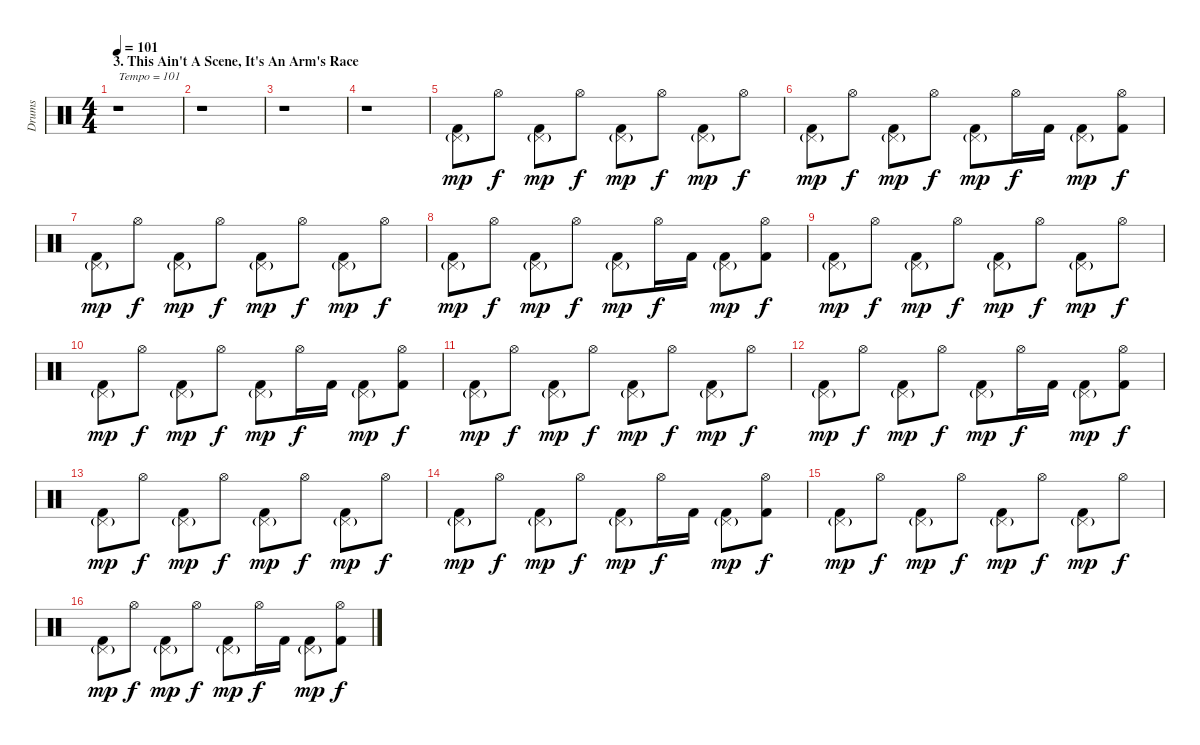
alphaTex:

\track ("Drums" "Drums") {instrument percussion}
\staff {score}
\articulation defaults
\ts (4 4)
\section ("" "3. This Ain't A Scene, It's An Arm's Race")
\tempo 101
\clef neutral
\ks c
r.1{txt "Tempo = 101" dy mp} |
r.1 |
r.1 |
r.1 |
("Pedal Hi-Hat (hit)"{g} "Kick (hit) 2").8 "Hi-Hat (open)".8{dy f} ("Pedal Hi-Hat (hit)"{g} "Kick (hit) 2").8{dy mp} "Hi-Hat (open)".8{dy f} ("Pedal Hi-Hat (hit)"{g} "Kick (hit) 2").8{dy mp} "Hi-Hat (open)".8{dy f} ("Pedal Hi-Hat (hit)"{g} "Kick (hit) 2").8{dy mp} "Hi-Hat (open)".8{dy f} |
("Pedal Hi-Hat (hit)"{g} "Kick (hit) 2").8{dy mp} "Hi-Hat (open)".8{dy f} ("Pedal Hi-Hat (hit)"{g} "Kick (hit) 2").8{dy mp} "Hi-Hat (open)".8{dy f} ("Pedal Hi-Hat (hit)"{g} "Kick (hit) 2").8{dy mp} "Hi-Hat (open)".16{dy f} "Kick (hit) 2".16 ("Pedal Hi-Hat (hit)"{g} "Kick (hit) 2").8{dy mp} ("Hi-Hat (open)" "Kick (hit) 2").8{dy f} |
("Pedal Hi-Hat (hit)"{g} "Kick (hit) 2").8{dy mp} "Hi-Hat (open)".8{dy f} ("Pedal Hi-Hat (hit)"{g} "Kick (hit) 2").8{dy mp} "Hi-Hat (open)".8{dy f} ("Pedal Hi-Hat (hit)"{g} "Kick (hit) 2").8{dy mp} "Hi-Hat (open)".8{dy f} ("Pedal Hi-Hat (hit)"{g} "Kick (hit) 2").8{dy mp} "Hi-Hat (open)".8{dy f} |
("Pedal Hi-Hat (hit)"{g} "Kick (hit) 2").8{dy mp} "Hi-Hat (open)".8{dy f} ("Pedal Hi-Hat (hit)"{g} "Kick (hit) 2").8{dy mp} "Hi-Hat (open)".8{dy f} ("Pedal Hi-Hat (hit)"{g} "Kick (hit) 2").8{dy mp} "Hi-Hat (open)".16{dy f} "Kick (hit) 2".16 ("Pedal Hi-Hat (hit)"{g} "Kick (hit) 2").8{dy mp} ("Hi-Hat (open)" "Kick (hit) 2").8{dy f} |
("Pedal Hi-Hat (hit)"{g} "Kick (hit) 2").8{dy mp} "Hi-Hat (open)".8{dy f} ("Pedal Hi-Hat (hit)"{g} "Kick (hit) 2").8{dy mp} "Hi-Hat (open)".8{dy f} ("Pedal Hi-Hat (hit)"{g} "Kick (hit) 2").8{dy mp} "Hi-Hat (open)".8{dy f} ("Pedal Hi-Hat (hit)"{g} "Kick (hit) 2").8{dy mp} "Hi-Hat (open)".8{dy f} |
("Pedal Hi-Hat (hit)"{g} "Kick (hit) 2").8{dy mp} "Hi-Hat (open)".8{dy f} ("Pedal Hi-Hat (hit)"{g} "Kick (hit) 2").8{dy mp} "Hi-Hat (open)".8{dy f} ("Pedal Hi-Hat (hit)"{g} "Kick (hit) 2").8{dy mp} "Hi-Hat (open)".16{dy f} "Kick (hit) 2".16 ("Pedal Hi-Hat (hit)"{g} "Kick (hit) 2").8{dy mp} ("Hi-Hat (open)" "Kick (hit) 2").8{dy f} |
("Pedal Hi-Hat (hit)"{g} "Kick (hit) 2").8{dy mp} "Hi-Hat (open)".8{dy f} ("Pedal Hi-Hat (hit)"{g} "Kick (hit) 2").8{dy mp} "Hi-Hat (open)".8{dy f} ("Pedal Hi-Hat (hit)"{g} "Kick (hit) 2").8{dy mp} "Hi-Hat (open)".8{dy f} ("Pedal Hi-Hat (hit)"{g} "Kick (hit) 2").8{dy mp} "Hi-Hat (open)".8{dy f} |
("Pedal Hi-Hat (hit)"{g} "Kick (hit) 2").8{dy mp} "Hi-Hat (open)".8{dy f} ("Pedal Hi-Hat (hit)"{g} "Kick (hit) 2").8{dy mp} "Hi-Hat (open)".8{dy f} ("Pedal Hi-Hat (hit)"{g} "Kick (hit) 2").8{dy mp} "Hi-Hat (open)".16{dy f} "Kick (hit) 2".16 ("Pedal Hi-Hat (hit)"{g} "Kick (hit) 2").8{dy mp} ("Hi-Hat (open)" "Kick (hit) 2").8{dy f} |
("Pedal Hi-Hat (hit)"{g} "Kick (hit) 2").8{dy mp} "Hi-Hat (open)".8{dy f} ("Pedal Hi-Hat (hit)"{g} "Kick (hit) 2").8{dy mp} "Hi-Hat (open)".8{dy f} ("Pedal Hi-Hat (hit)"{g} "Kick (hit) 2").8{dy mp} "Hi-Hat (open)".8{dy f} ("Pedal Hi-Hat (hit)"{g} "Kick (hit) 2").8{dy mp} "Hi-Hat (open)".8{dy f} |
("Pedal Hi-Hat (hit)"{g} "Kick (hit) 2").8{dy mp} "Hi-Hat (open)".8{dy f} ("Pedal Hi-Hat (hit)"{g} "Kick (hit) 2").8{dy mp} "Hi-Hat (open)".8{dy f} ("Pedal Hi-Hat (hit)"{g} "Kick (hit) 2").8{dy mp} "Hi-Hat (open)".16{dy f} "Kick (hit) 2".16 ("Pedal Hi-Hat (hit)"{g} "Kick (hit) 2").8{dy mp} ("Hi-Hat (open)" "Kick (hit) 2").8{dy f} |
("Pedal Hi-Hat (hit)"{g} "Kick (hit) 2").8{dy mp} "Hi-Hat (open)".8{dy f} ("Pedal Hi-Hat (hit)"{g} "Kick (hit) 2").8{dy mp} "Hi-Hat (open)".8{dy f} ("Pedal Hi-Hat (hit)"{g} "Kick (hit) 2").8{dy mp} "Hi-Hat (open)".8{dy f} ("Pedal Hi-Hat (hit)"{g} "Kick (hit) 2").8{dy mp} "Hi-Hat (open)".8{dy f} |
("Pedal Hi-Hat (hit)"{g} "Kick (hit) 2").8{dy mp} "Hi-Hat (open)".8{dy f} ("Pedal Hi-Hat (hit)"{g} "Kick (hit) 2").8{dy mp} "Hi-Hat (open)".8{dy f} ("Pedal Hi-Hat (hit)"{g} "Kick (hit) 2").8{dy mp} "Hi-Hat (open)".16{dy f} "Kick (hit) 2".16 ("Pedal Hi-Hat (hit)"{g} "Kick (hit) 2").8{dy mp} ("Hi-Hat (open)" "Kick (hit) 2").8{dy f}
